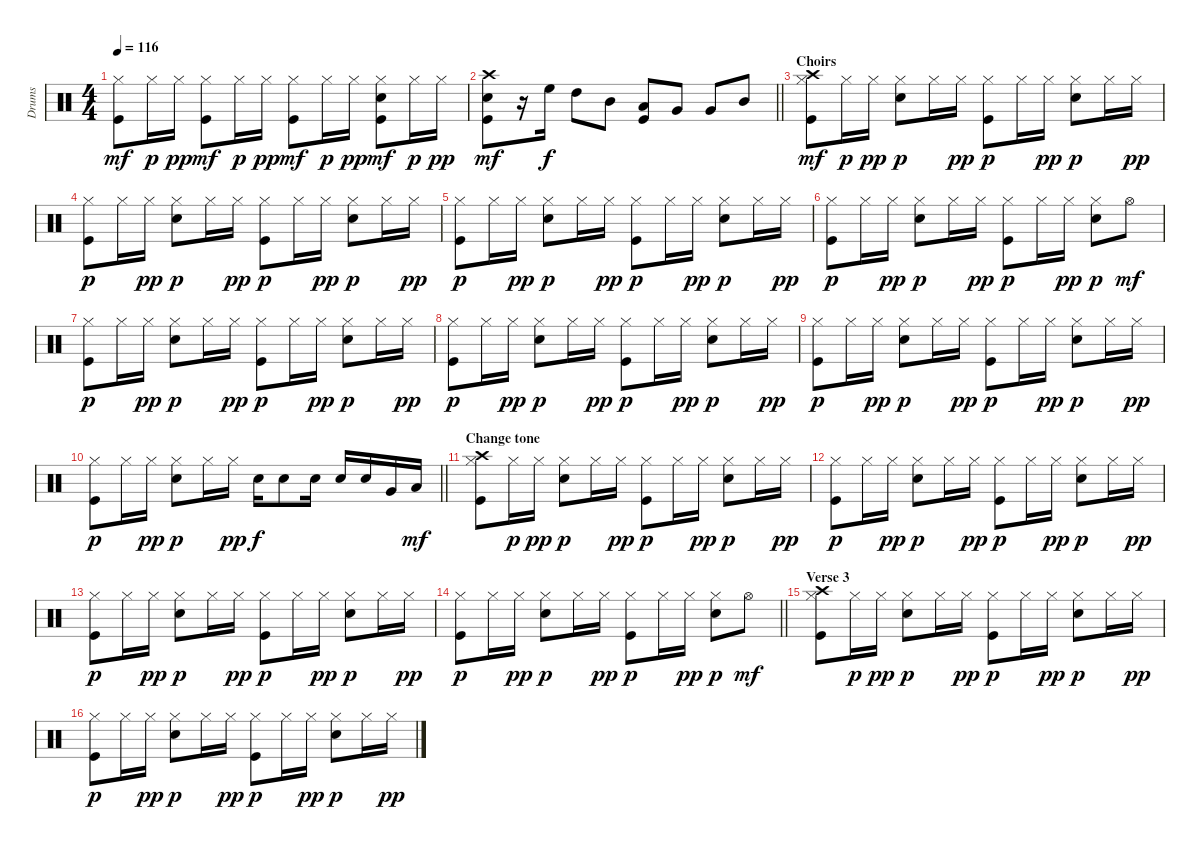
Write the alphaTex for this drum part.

\track ("Drums" "Drums") {instrument percussion}
\staff {score}
\articulation defaults
\ts (4 4)
\tempo 116
\clef neutral
\ks c
("Hi-Hat (closed)" "Kick (hit)").8{dy mf} "Hi-Hat (closed)".16{dy p} "Hi-Hat (closed)".16{dy pp} ("Hi-Hat (closed)" "Kick (hit)").8{dy mf} "Hi-Hat (closed)".16{dy p} "Hi-Hat (closed)".16{dy pp} ("Hi-Hat (closed)" "Kick (hit)").8{dy mf} "Hi-Hat (closed)".16{dy p} "Hi-Hat (closed)".16{dy pp} ("Hi-Hat (closed)" "Snare (hit) 2" "Kick (hit)").8{dy mf} "Hi-Hat (closed)".16{dy p} "Hi-Hat (closed)".16{dy pp} |
\barLineRight lightlight
("Crash high (hit)" "Snare (hit) 2" "Kick (hit)").8{dy mf} r.16 "High Floor Tom (hit)".16{dy f} "High Tom (hit)".8 "Mid Tom (hit)".8 ("Low Tom (hit)" "Kick (hit)").8 "Very Low Tom (hit)".8 "Very Low Tom (hit)".8 "Mid Tom (hit)".8 |
\section ("" "Choirs")
("Hi-Hat (closed)" "Crash high (hit)" "Kick (hit)").8{dy mf} "Hi-Hat (closed)".16{dy p} "Hi-Hat (closed)".16{dy pp} ("Hi-Hat (closed)" "Snare (hit) 2").8{dy p} "Hi-Hat (closed)".16 "Hi-Hat (closed)".16{dy pp} ("Hi-Hat (closed)" "Kick (hit)").8{dy p} "Hi-Hat (closed)".16 "Hi-Hat (closed)".16{dy pp} ("Hi-Hat (closed)" "Snare (hit) 2").8{dy p} "Hi-Hat (closed)".16 "Hi-Hat (closed)".16{dy pp} |
("Hi-Hat (closed)" "Kick (hit)").8{dy p} "Hi-Hat (closed)".16 "Hi-Hat (closed)".16{dy pp} ("Hi-Hat (closed)" "Snare (hit) 2").8{dy p} "Hi-Hat (closed)".16 "Hi-Hat (closed)".16{dy pp} ("Hi-Hat (closed)" "Kick (hit)").8{dy p} "Hi-Hat (closed)".16 "Hi-Hat (closed)".16{dy pp} ("Hi-Hat (closed)" "Snare (hit) 2").8{dy p} "Hi-Hat (closed)".16 "Hi-Hat (closed)".16{dy pp} |
("Hi-Hat (closed)" "Kick (hit)").8{dy p} "Hi-Hat (closed)".16 "Hi-Hat (closed)".16{dy pp} ("Hi-Hat (closed)" "Snare (hit) 2").8{dy p} "Hi-Hat (closed)".16 "Hi-Hat (closed)".16{dy pp} ("Hi-Hat (closed)" "Kick (hit)").8{dy p} "Hi-Hat (closed)".16 "Hi-Hat (closed)".16{dy pp} ("Hi-Hat (closed)" "Snare (hit) 2").8{dy p} "Hi-Hat (closed)".16 "Hi-Hat (closed)".16{dy pp} |
("Hi-Hat (closed)" "Kick (hit)").8{dy p} "Hi-Hat (closed)".16 "Hi-Hat (closed)".16{dy pp} ("Hi-Hat (closed)" "Snare (hit) 2").8{dy p} "Hi-Hat (closed)".16 "Hi-Hat (closed)".16{dy pp} ("Hi-Hat (closed)" "Kick (hit)").8{dy p} "Hi-Hat (closed)".16 "Hi-Hat (closed)".16{dy pp} ("Hi-Hat (closed)" "Snare (hit) 2").8{dy p} "Hi-Hat (open)".8{dy mf} |
("Hi-Hat (closed)" "Kick (hit)").8{dy p} "Hi-Hat (closed)".16 "Hi-Hat (closed)".16{dy pp} ("Hi-Hat (closed)" "Snare (hit) 2").8{dy p} "Hi-Hat (closed)".16 "Hi-Hat (closed)".16{dy pp} ("Hi-Hat (closed)" "Kick (hit)").8{dy p} "Hi-Hat (closed)".16 "Hi-Hat (closed)".16{dy pp} ("Hi-Hat (closed)" "Snare (hit) 2").8{dy p} "Hi-Hat (closed)".16 "Hi-Hat (closed)".16{dy pp} |
("Hi-Hat (closed)" "Kick (hit)").8{dy p} "Hi-Hat (closed)".16 "Hi-Hat (closed)".16{dy pp} ("Hi-Hat (closed)" "Snare (hit) 2").8{dy p} "Hi-Hat (closed)".16 "Hi-Hat (closed)".16{dy pp} ("Hi-Hat (closed)" "Kick (hit)").8{dy p} "Hi-Hat (closed)".16 "Hi-Hat (closed)".16{dy pp} ("Hi-Hat (closed)" "Snare (hit) 2").8{dy p} "Hi-Hat (closed)".16 "Hi-Hat (closed)".16{dy pp} |
("Hi-Hat (closed)" "Kick (hit)").8{dy p} "Hi-Hat (closed)".16 "Hi-Hat (closed)".16{dy pp} ("Hi-Hat (closed)" "Snare (hit) 2").8{dy p} "Hi-Hat (closed)".16 "Hi-Hat (closed)".16{dy pp} ("Hi-Hat (closed)" "Kick (hit)").8{dy p} "Hi-Hat (closed)".16 "Hi-Hat (closed)".16{dy pp} ("Hi-Hat (closed)" "Snare (hit) 2").8{dy p} "Hi-Hat (closed)".16 "Hi-Hat (closed)".16{dy pp} |
\barLineRight lightlight
("Hi-Hat (closed)" "Kick (hit)").8{dy p} "Hi-Hat (closed)".16 "Hi-Hat (closed)".16{dy pp} ("Hi-Hat (closed)" "Snare (hit) 2").8{dy p} "Hi-Hat (closed)".16 "Hi-Hat (closed)".16{dy pp} "Snare (hit) 2".16{dy f} "Snare (hit) 2".8 "Snare (hit) 2".16 "Snare (hit) 2".16 "Snare (hit) 2".16 "Very Low Tom (hit)".16 "Low Floor Tom (hit)".16{dy mf} |
\section ("" "Change tone")
("Hi-Hat (closed)" "Crash high (hit)" "Kick (hit)").8 "Hi-Hat (closed)".16{dy p} "Hi-Hat (closed)".16{dy pp} ("Hi-Hat (closed)" "Snare (hit) 2").8{dy p} "Hi-Hat (closed)".16 "Hi-Hat (closed)".16{dy pp} ("Hi-Hat (closed)" "Kick (hit)").8{dy p} "Hi-Hat (closed)".16 "Hi-Hat (closed)".16{dy pp} ("Hi-Hat (closed)" "Snare (hit) 2").8{dy p} "Hi-Hat (closed)".16 "Hi-Hat (closed)".16{dy pp} |
("Hi-Hat (closed)" "Kick (hit)").8{dy p} "Hi-Hat (closed)".16 "Hi-Hat (closed)".16{dy pp} ("Hi-Hat (closed)" "Snare (hit) 2").8{dy p} "Hi-Hat (closed)".16 "Hi-Hat (closed)".16{dy pp} ("Hi-Hat (closed)" "Kick (hit)").8{dy p} "Hi-Hat (closed)".16 "Hi-Hat (closed)".16{dy pp} ("Hi-Hat (closed)" "Snare (hit) 2").8{dy p} "Hi-Hat (closed)".16 "Hi-Hat (closed)".16{dy pp} |
("Hi-Hat (closed)" "Kick (hit)").8{dy p} "Hi-Hat (closed)".16 "Hi-Hat (closed)".16{dy pp} ("Hi-Hat (closed)" "Snare (hit) 2").8{dy p} "Hi-Hat (closed)".16 "Hi-Hat (closed)".16{dy pp} ("Hi-Hat (closed)" "Kick (hit)").8{dy p} "Hi-Hat (closed)".16 "Hi-Hat (closed)".16{dy pp} ("Hi-Hat (closed)" "Snare (hit) 2").8{dy p} "Hi-Hat (closed)".16 "Hi-Hat (closed)".16{dy pp} |
\barLineRight lightlight
("Hi-Hat (closed)" "Kick (hit)").8{dy p} "Hi-Hat (closed)".16 "Hi-Hat (closed)".16{dy pp} ("Hi-Hat (closed)" "Snare (hit) 2").8{dy p} "Hi-Hat (closed)".16 "Hi-Hat (closed)".16{dy pp} ("Hi-Hat (closed)" "Kick (hit)").8{dy p} "Hi-Hat (closed)".16 "Hi-Hat (closed)".16{dy pp} ("Hi-Hat (closed)" "Snare (hit) 2").8{dy p} "Hi-Hat (open)".8{dy mf} |
\section ("" "Verse 3")
("Hi-Hat (closed)" "Crash high (hit)" "Kick (hit)").8 "Hi-Hat (closed)".16{dy p} "Hi-Hat (closed)".16{dy pp} ("Hi-Hat (closed)" "Snare (hit) 2").8{dy p} "Hi-Hat (closed)".16 "Hi-Hat (closed)".16{dy pp} ("Hi-Hat (closed)" "Kick (hit)").8{dy p} "Hi-Hat (closed)".16 "Hi-Hat (closed)".16{dy pp} ("Hi-Hat (closed)" "Snare (hit) 2").8{dy p} "Hi-Hat (closed)".16 "Hi-Hat (closed)".16{dy pp} |
("Hi-Hat (closed)" "Kick (hit)").8{dy p} "Hi-Hat (closed)".16 "Hi-Hat (closed)".16{dy pp} ("Hi-Hat (closed)" "Snare (hit) 2").8{dy p} "Hi-Hat (closed)".16 "Hi-Hat (closed)".16{dy pp} ("Hi-Hat (closed)" "Kick (hit)").8{dy p} "Hi-Hat (closed)".16 "Hi-Hat (closed)".16{dy pp} ("Hi-Hat (closed)" "Snare (hit) 2").8{dy p} "Hi-Hat (closed)".16 "Hi-Hat (closed)".16{dy pp}
